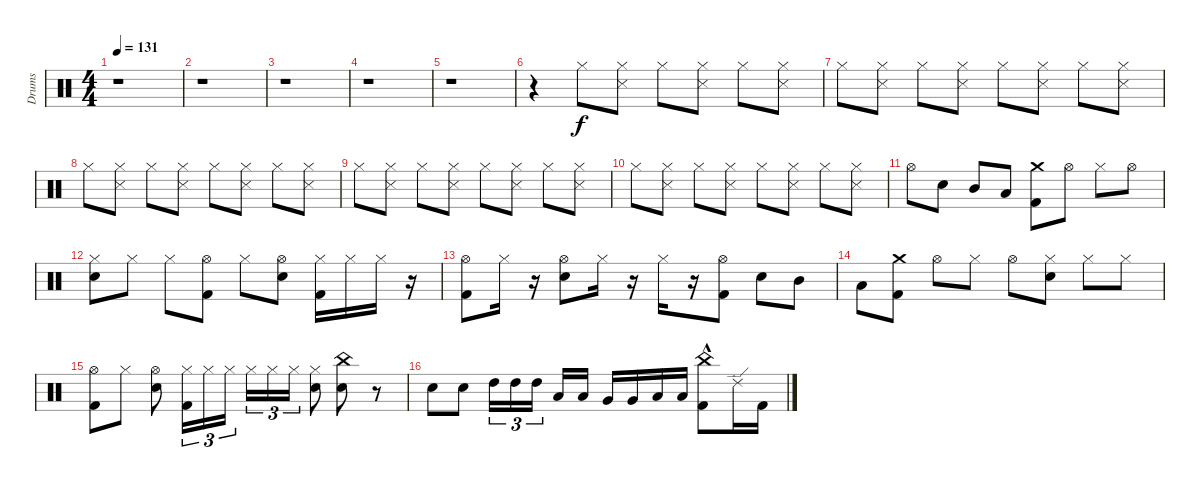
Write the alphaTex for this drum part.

\track ("Drums" "Drums") {instrument percussion}
\staff {score}
\articulation defaults
\ts (4 4)
\tempo 131
\clef neutral
\ks c
r.1{dy f} |
r.1 |
r.1 |
r.1 |
r.1 |
r.4 "Hi-Hat (closed)".8 ("Metronome (hit)" "Hi-Hat (closed)").8 "Hi-Hat (closed)".8 ("Metronome (hit)" "Hi-Hat (closed)").8 "Hi-Hat (closed)".8 ("Metronome (hit)" "Hi-Hat (closed)").8 |
"Hi-Hat (closed)".8 ("Metronome (hit)" "Hi-Hat (closed)").8 "Hi-Hat (closed)".8 ("Metronome (hit)" "Hi-Hat (closed)").8 "Hi-Hat (closed)".8 ("Metronome (hit)" "Hi-Hat (closed)").8 "Hi-Hat (closed)".8 ("Metronome (hit)" "Hi-Hat (closed)").8 |
"Hi-Hat (closed)".8 ("Metronome (hit)" "Hi-Hat (closed)").8 "Hi-Hat (closed)".8 ("Metronome (hit)" "Hi-Hat (closed)").8 "Hi-Hat (closed)".8 ("Metronome (hit)" "Hi-Hat (closed)").8 "Hi-Hat (closed)".8 ("Metronome (hit)" "Hi-Hat (closed)").8 |
"Hi-Hat (closed)".8 ("Metronome (hit)" "Hi-Hat (closed)").8 "Hi-Hat (closed)".8 ("Metronome (hit)" "Hi-Hat (closed)").8 "Hi-Hat (closed)".8 ("Metronome (hit)" "Hi-Hat (closed)").8 "Hi-Hat (closed)".8 ("Metronome (hit)" "Hi-Hat (closed)").8 |
"Hi-Hat (closed)".8 ("Metronome (hit)" "Hi-Hat (closed)").8 "Hi-Hat (closed)".8 ("Metronome (hit)" "Hi-Hat (closed)").8 "Hi-Hat (closed)".8 ("Metronome (hit)" "Hi-Hat (closed)").8 "Hi-Hat (closed)".8 ("Metronome (hit)" "Hi-Hat (closed)").8 |
"Hi-Hat (open)".8 "Electric Snare (hit)".8 "Mid Tom (hit)".8 "Low Tom (hit)".8 ("Crash medium (hit)" "Kick (hit) 2").8 "Hi-Hat (open)".8 "Hi-Hat (closed)".8 "Hi-Hat (open)".8 |
("Hi-Hat (closed)" "Electric Snare (hit)").8 "Hi-Hat (closed)".8 "Hi-Hat (closed)".8 ("Hi-Hat (open)" "Kick (hit) 2").8 "Hi-Hat (closed)".8 ("Hi-Hat (open)" "Electric Snare (hit)").8 ("Hi-Hat (closed)" "Kick (hit) 2").16 "Hi-Hat (closed)".16 "Hi-Hat (closed)".16 r.16 |
("Hi-Hat (open)" "Kick (hit) 2").8 "Hi-Hat (closed)".16 r.16 ("Hi-Hat (open)" "Electric Snare (hit)").8 "Hi-Hat (closed)".16 r.16 "Hi-Hat (closed)".16 r.16 ("Hi-Hat (open)" "Kick (hit) 2").8 "Electric Snare (hit)".8 "Mid Tom (hit)".8 |
"Low Tom (hit)".8 ("Crash medium (hit)" "Kick (hit) 2").8 "Hi-Hat (open)".8 "Hi-Hat (closed)".8 "Hi-Hat (open)".8 ("Hi-Hat (closed)" "Electric Snare (hit)").8 "Hi-Hat (closed)".8 "Hi-Hat (closed)".8 |
("Hi-Hat (open)" "Kick (hit) 2").8 "Hi-Hat (closed)".8 ("Hi-Hat (open)" "Electric Snare (hit)").8 ("Kick (hit) 2" "Hi-Hat (closed)").16{tu (3 2)} "Hi-Hat (closed)".16{tu (3 2)} "Hi-Hat (closed)".16{tu (3 2)} "Hi-Hat (closed)".16{tu (3 2)} "Hi-Hat (closed)".16{tu (3 2)} "Hi-Hat (closed)".16{tu (3 2)} ("Electric Snare (hit)" "Hi-Hat (closed)").8 ("China (hit)" "Electric Snare (hit)").8 r.8 |
"Electric Snare (hit)".8 "Electric Snare (hit)".8 "High Tom (hit)".16{tu (3 2) volume 9} "High Tom (hit)".16{tu (3 2) volume 12} "High Tom (hit)".16{tu (3 2) volume 15} "Low Tom (hit)".16{volume 16} "Low Tom (hit)".16 "Very Low Tom (hit)".16 "Very Low Tom (hit)".16 "Low Floor Tom (hit)".16 "Low Floor Tom (hit)".16 ("Kick (hit) 2"{hac} "China (hit)").8 "Ride (edge) 2".16 "Kick (hit) 2".16
